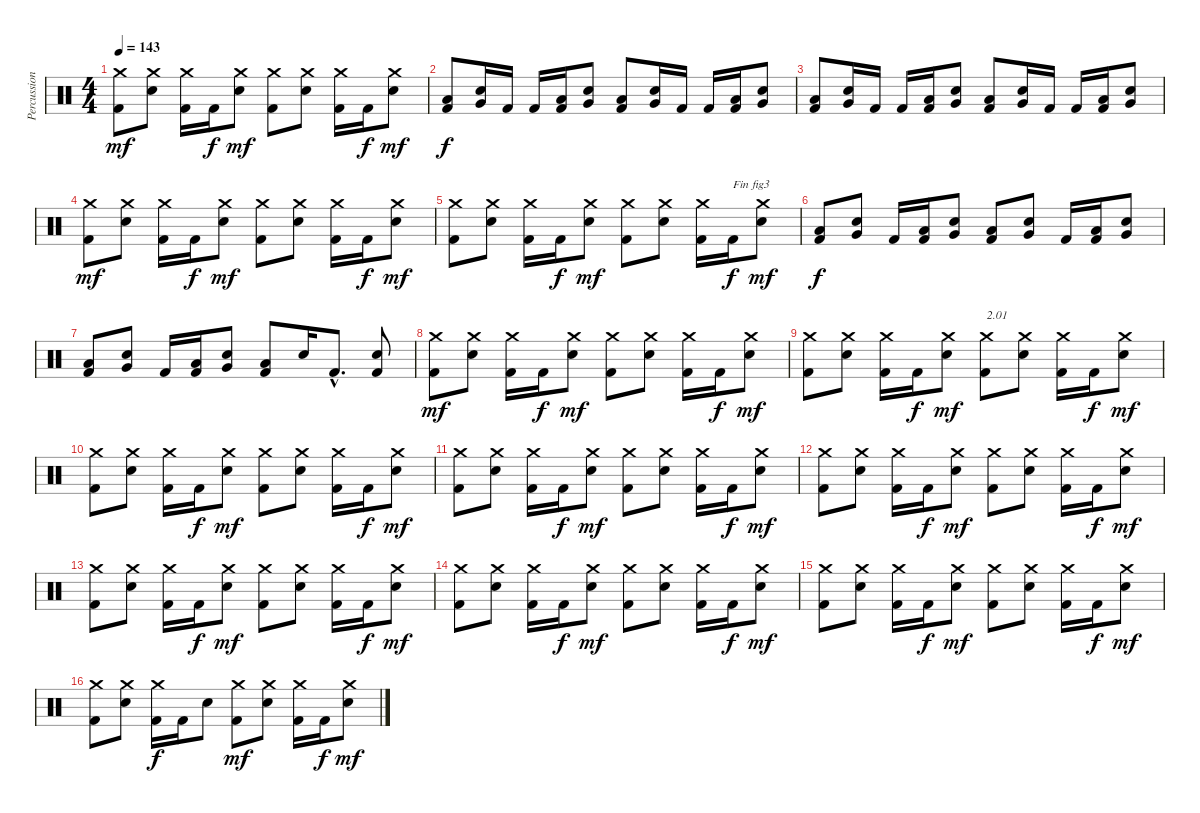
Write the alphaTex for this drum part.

\track ("Percussions" "Percussion") {instrument percussion}
\staff {score}
\articulation defaults
\ts (4 4)
\tempo 143
\clef neutral
\ks c
("Kick (hit) 2" "Crash medium (hit)").8{dy mf} ("Electric Snare (hit)" "Crash medium (hit)").8 ("Kick (hit) 2" "Crash medium (hit)").16 "Kick (hit) 2".16{dy f} ("Electric Snare (hit)" "Crash medium (hit)").8{dy mf} ("Kick (hit) 2" "Crash medium (hit)").8 ("Electric Snare (hit)" "Crash medium (hit)").8 ("Kick (hit) 2" "Crash medium (hit)").16 "Kick (hit) 2".16{dy f} ("Electric Snare (hit)" "Crash medium (hit)").8{dy mf} |
("Kick (hit) 2" "Low Floor Tom (hit)").8{dy f} ("Electric Snare (hit)" "Very Low Tom (hit)").16 "Kick (hit) 2".16 "Kick (hit) 2".16 ("Kick (hit) 2" "Low Floor Tom (hit)").16 ("Electric Snare (hit)" "Very Low Tom (hit)").8 ("Kick (hit) 2" "Low Floor Tom (hit)").8 ("Electric Snare (hit)" "Very Low Tom (hit)").16 "Kick (hit) 2".16 "Kick (hit) 2".16 ("Kick (hit) 2" "Low Floor Tom (hit)").16 ("Electric Snare (hit)" "Very Low Tom (hit)").8 |
("Kick (hit) 2" "Low Floor Tom (hit)").8 ("Electric Snare (hit)" "Very Low Tom (hit)").16 "Kick (hit) 2".16 "Kick (hit) 2".16 ("Kick (hit) 2" "Low Floor Tom (hit)").16 ("Electric Snare (hit)" "Very Low Tom (hit)").8 ("Kick (hit) 2" "Low Floor Tom (hit)").8 ("Electric Snare (hit)" "Very Low Tom (hit)").16 "Kick (hit) 2".16 "Kick (hit) 2".16 ("Kick (hit) 2" "Low Floor Tom (hit)").16 ("Electric Snare (hit)" "Very Low Tom (hit)").8 |
("Kick (hit) 2" "Crash medium (hit)").8{dy mf} ("Electric Snare (hit)" "Crash medium (hit)").8 ("Kick (hit) 2" "Crash medium (hit)").16 "Kick (hit) 2".16{dy f} ("Electric Snare (hit)" "Crash medium (hit)").8{dy mf} ("Kick (hit) 2" "Crash medium (hit)").8 ("Electric Snare (hit)" "Crash medium (hit)").8 ("Kick (hit) 2" "Crash medium (hit)").16 "Kick (hit) 2".16{dy f} ("Electric Snare (hit)" "Crash medium (hit)").8{dy mf} |
("Kick (hit) 2" "Crash medium (hit)").8 ("Electric Snare (hit)" "Crash medium (hit)").8 ("Kick (hit) 2" "Crash medium (hit)").16 "Kick (hit) 2".16{dy f} ("Electric Snare (hit)" "Crash medium (hit)").8{dy mf} ("Kick (hit) 2" "Crash medium (hit)").8 ("Electric Snare (hit)" "Crash medium (hit)").8 ("Kick (hit) 2" "Crash medium (hit)").16 "Kick (hit) 2".16{txt "Fin fig3" dy f} ("Electric Snare (hit)" "Crash medium (hit)").8{dy mf} |
("Kick (hit) 2" "Low Floor Tom (hit)").8{dy f} ("Electric Snare (hit)" "Very Low Tom (hit)").8 "Kick (hit) 2".16 ("Kick (hit) 2" "Low Floor Tom (hit)").16 ("Electric Snare (hit)" "Very Low Tom (hit)").8 ("Kick (hit) 2" "Low Floor Tom (hit)").8 ("Electric Snare (hit)" "Very Low Tom (hit)").8 "Kick (hit) 2".16 ("Kick (hit) 2" "Low Floor Tom (hit)").16 ("Electric Snare (hit)" "Very Low Tom (hit)").8 |
("Kick (hit) 2" "Low Floor Tom (hit)").8 ("Electric Snare (hit)" "Very Low Tom (hit)").8 "Kick (hit) 2".16 ("Kick (hit) 2" "Low Floor Tom (hit)").16 ("Electric Snare (hit)" "Very Low Tom (hit)").8 ("Kick (hit) 2" "Low Floor Tom (hit)").8 "Electric Snare (hit)".16 "Kick (hit) 2"{hac}.8{d} ("Kick (hit) 2" "Electric Snare (hit)").8 |
("Kick (hit) 2" "Crash medium (hit)").8{dy mf} ("Electric Snare (hit)" "Crash medium (hit)").8 ("Kick (hit) 2" "Crash medium (hit)").16 "Kick (hit) 2".16{dy f} ("Electric Snare (hit)" "Crash medium (hit)").8{dy mf} ("Kick (hit) 2" "Crash medium (hit)").8 ("Electric Snare (hit)" "Crash medium (hit)").8 ("Kick (hit) 2" "Crash medium (hit)").16 "Kick (hit) 2".16{dy f} ("Electric Snare (hit)" "Crash medium (hit)").8{dy mf} |
("Kick (hit) 2" "Crash medium (hit)").8 ("Electric Snare (hit)" "Crash medium (hit)").8 ("Kick (hit) 2" "Crash medium (hit)").16 "Kick (hit) 2".16{dy f} ("Electric Snare (hit)" "Crash medium (hit)").8{dy mf} ("Kick (hit) 2" "Crash medium (hit)").8{txt "2.01"} ("Electric Snare (hit)" "Crash medium (hit)").8 ("Kick (hit) 2" "Crash medium (hit)").16 "Kick (hit) 2".16{dy f} ("Electric Snare (hit)" "Crash medium (hit)").8{dy mf} |
("Kick (hit) 2" "Crash medium (hit)").8 ("Electric Snare (hit)" "Crash medium (hit)").8 ("Kick (hit) 2" "Crash medium (hit)").16 "Kick (hit) 2".16{dy f} ("Electric Snare (hit)" "Crash medium (hit)").8{dy mf} ("Kick (hit) 2" "Crash medium (hit)").8 ("Electric Snare (hit)" "Crash medium (hit)").8 ("Kick (hit) 2" "Crash medium (hit)").16 "Kick (hit) 2".16{dy f} ("Electric Snare (hit)" "Crash medium (hit)").8{dy mf} |
("Kick (hit) 2" "Crash medium (hit)").8 ("Electric Snare (hit)" "Crash medium (hit)").8 ("Kick (hit) 2" "Crash medium (hit)").16 "Kick (hit) 2".16{dy f} ("Electric Snare (hit)" "Crash medium (hit)").8{dy mf} ("Kick (hit) 2" "Crash medium (hit)").8 ("Electric Snare (hit)" "Crash medium (hit)").8 ("Kick (hit) 2" "Crash medium (hit)").16 "Kick (hit) 2".16{dy f} ("Electric Snare (hit)" "Crash medium (hit)").8{dy mf} |
("Kick (hit) 2" "Crash medium (hit)").8 ("Electric Snare (hit)" "Crash medium (hit)").8 ("Kick (hit) 2" "Crash medium (hit)").16 "Kick (hit) 2".16{dy f} ("Electric Snare (hit)" "Crash medium (hit)").8{dy mf} ("Kick (hit) 2" "Crash medium (hit)").8 ("Electric Snare (hit)" "Crash medium (hit)").8 ("Kick (hit) 2" "Crash medium (hit)").16 "Kick (hit) 2".16{dy f} ("Electric Snare (hit)" "Crash medium (hit)").8{dy mf} |
("Kick (hit) 2" "Crash medium (hit)").8 ("Electric Snare (hit)" "Crash medium (hit)").8 ("Kick (hit) 2" "Crash medium (hit)").16 "Kick (hit) 2".16{dy f} ("Electric Snare (hit)" "Crash medium (hit)").8{dy mf} ("Kick (hit) 2" "Crash medium (hit)").8 ("Electric Snare (hit)" "Crash medium (hit)").8 ("Kick (hit) 2" "Crash medium (hit)").16 "Kick (hit) 2".16{dy f} ("Electric Snare (hit)" "Crash medium (hit)").8{dy mf} |
("Kick (hit) 2" "Crash medium (hit)").8 ("Electric Snare (hit)" "Crash medium (hit)").8 ("Kick (hit) 2" "Crash medium (hit)").16 "Kick (hit) 2".16{dy f} ("Electric Snare (hit)" "Crash medium (hit)").8{dy mf} ("Kick (hit) 2" "Crash medium (hit)").8 ("Electric Snare (hit)" "Crash medium (hit)").8 ("Kick (hit) 2" "Crash medium (hit)").16 "Kick (hit) 2".16{dy f} ("Electric Snare (hit)" "Crash medium (hit)").8{dy mf} |
("Kick (hit) 2" "Crash medium (hit)").8 ("Electric Snare (hit)" "Crash medium (hit)").8 ("Kick (hit) 2" "Crash medium (hit)").16 "Kick (hit) 2".16{dy f} ("Electric Snare (hit)" "Crash medium (hit)").8{dy mf} ("Kick (hit) 2" "Crash medium (hit)").8 ("Electric Snare (hit)" "Crash medium (hit)").8 ("Kick (hit) 2" "Crash medium (hit)").16 "Kick (hit) 2".16{dy f} ("Electric Snare (hit)" "Crash medium (hit)").8{dy mf} |
("Kick (hit) 2" "Crash medium (hit)").8 ("Electric Snare (hit)" "Crash medium (hit)").8 ("Kick (hit) 2" "Crash medium (hit)").16{dy f} "Kick (hit) 2".16 "Electric Snare (hit)".8 ("Kick (hit) 2" "Crash medium (hit)").8{dy mf} ("Electric Snare (hit)" "Crash medium (hit)").8 ("Kick (hit) 2" "Crash medium (hit)").16 "Kick (hit) 2".16{dy f} ("Electric Snare (hit)" "Crash medium (hit)").8{dy mf}
